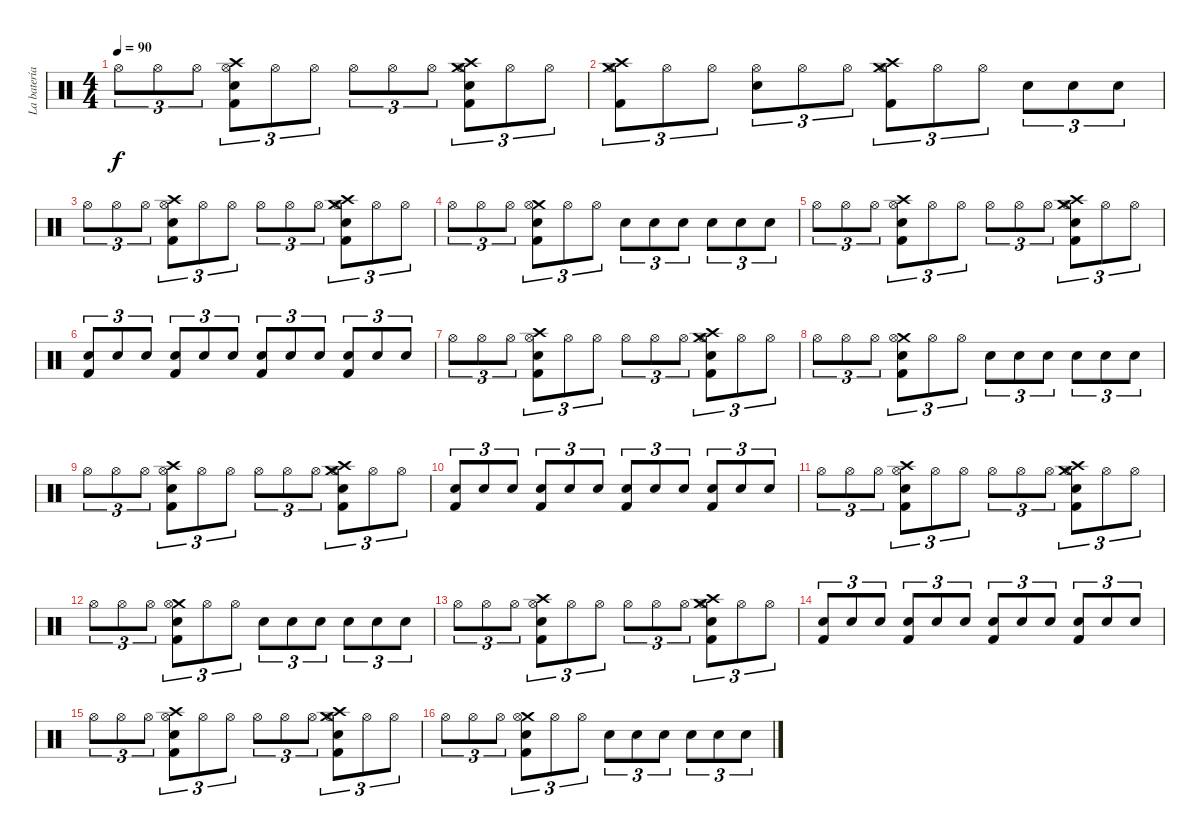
\track ("La batería (con dos huevos xD)" "La batería") {instrument percussion}
\staff {score}
\articulation defaults
\ts (4 4)
\tempo 90
\clef neutral
\ks c "Hi-Hat (open)".8{tu (3 2) dy f} "Hi-Hat (open)".8{tu (3 2)} "Hi-Hat (open)".8{tu (3 2)}
("Crash high (hit)" "Hi-Hat (open)" "Electric Snare (hit)" "Kick (hit) 2").8{tu (3 2)} "Hi-Hat (open)".8{tu (3 2)} "Hi-Hat (open)".8{tu (3 2)} "Hi-Hat (open)".8{tu (3 2)} "Hi-Hat (open)".8{tu (3 2)} "Hi-Hat (open)".8{tu (3 2)} ("Crash medium (hit)" "Hi-Hat (open)" "Crash high (hit)" "Electric Snare (hit)" "Kick (hit) 2").8{tu (3 2)} "Hi-Hat (open)".8{tu (3 2)} "Hi-Hat (open)".8{tu (3 2)} |
("Crash medium (hit)" "Hi-Hat (open)" "Crash high (hit)" "Kick (hit) 2").8{tu (3 2)} "Hi-Hat (open)".8{tu (3 2)} "Hi-Hat (open)".8{tu (3 2)} ("Hi-Hat (open)" "Electric Snare (hit)").8{tu (3 2)} "Hi-Hat (open)".8{tu (3 2)} "Hi-Hat (open)".8{tu (3 2)} ("Crash medium (hit)" "Hi-Hat (open)" "Crash high (hit)" "Kick (hit) 2").8{tu (3 2)} "Hi-Hat (open)".8{tu (3 2)} "Hi-Hat (open)".8{tu (3 2)} "Electric Snare (hit)".8{tu (3 2)} "Electric Snare (hit)".8{tu (3 2)} "Electric Snare (hit)".8{tu (3 2)} |
"Hi-Hat (open)".8{tu (3 2)} "Hi-Hat (open)".8{tu (3 2)} "Hi-Hat (open)".8{tu (3 2)} ("Crash high (hit)" "Hi-Hat (open)" "Electric Snare (hit)" "Kick (hit) 2").8{tu (3 2)} "Hi-Hat (open)".8{tu (3 2)} "Hi-Hat (open)".8{tu (3 2)} "Hi-Hat (open)".8{tu (3 2)} "Hi-Hat (open)".8{tu (3 2)} "Hi-Hat (open)".8{tu (3 2)} ("Crash medium (hit)" "Hi-Hat (open)" "Crash high (hit)" "Electric Snare (hit)" "Kick (hit) 2").8{tu (3 2)} "Hi-Hat (open)".8{tu (3 2)} "Hi-Hat (open)".8{tu (3 2)} |
"Hi-Hat (open)".8{tu (3 2)} "Hi-Hat (open)".8{tu (3 2)} "Hi-Hat (open)".8{tu (3 2)} ("Crash medium (hit)" "Hi-Hat (open)" "Electric Snare (hit)" "Kick (hit) 2").8{tu (3 2)} "Hi-Hat (open)".8{tu (3 2)} "Hi-Hat (open)".8{tu (3 2)} "Electric Snare (hit)".8{tu (3 2)} "Electric Snare (hit)".8{tu (3 2)} "Electric Snare (hit)".8{tu (3 2)} "Electric Snare (hit)".8{tu (3 2)} "Electric Snare (hit)".8{tu (3 2)} "Electric Snare (hit)".8{tu (3 2)} |
"Hi-Hat (open)".8{tu (3 2)} "Hi-Hat (open)".8{tu (3 2)} "Hi-Hat (open)".8{tu (3 2)} ("Crash high (hit)" "Hi-Hat (open)" "Electric Snare (hit)" "Kick (hit) 2").8{tu (3 2)} "Hi-Hat (open)".8{tu (3 2)} "Hi-Hat (open)".8{tu (3 2)} "Hi-Hat (open)".8{tu (3 2)} "Hi-Hat (open)".8{tu (3 2)} "Hi-Hat (open)".8{tu (3 2)} ("Crash medium (hit)" "Hi-Hat (open)" "Crash high (hit)" "Electric Snare (hit)" "Kick (hit) 2").8{tu (3 2)} "Hi-Hat (open)".8{tu (3 2)} "Hi-Hat (open)".8{tu (3 2)} |
("Electric Snare (hit)" "Kick (hit) 2").8{tu (3 2)} "Electric Snare (hit)".8{tu (3 2)} "Electric Snare (hit)".8{tu (3 2)} ("Electric Snare (hit)" "Kick (hit) 2").8{tu (3 2)} "Electric Snare (hit)".8{tu (3 2)} "Electric Snare (hit)".8{tu (3 2)} ("Electric Snare (hit)" "Kick (hit) 2").8{tu (3 2)} "Electric Snare (hit)".8{tu (3 2)} "Electric Snare (hit)".8{tu (3 2)} ("Electric Snare (hit)" "Kick (hit) 2").8{tu (3 2)} "Electric Snare (hit)".8{tu (3 2)} "Electric Snare (hit)".8{tu (3 2)} |
"Hi-Hat (open)".8{tu (3 2)} "Hi-Hat (open)".8{tu (3 2)} "Hi-Hat (open)".8{tu (3 2)} ("Crash high (hit)" "Hi-Hat (open)" "Electric Snare (hit)" "Kick (hit) 2").8{tu (3 2)} "Hi-Hat (open)".8{tu (3 2)} "Hi-Hat (open)".8{tu (3 2)} "Hi-Hat (open)".8{tu (3 2)} "Hi-Hat (open)".8{tu (3 2)} "Hi-Hat (open)".8{tu (3 2)} ("Crash medium (hit)" "Hi-Hat (open)" "Crash high (hit)" "Electric Snare (hit)" "Kick (hit) 2").8{tu (3 2)} "Hi-Hat (open)".8{tu (3 2)} "Hi-Hat (open)".8{tu (3 2)} |
"Hi-Hat (open)".8{tu (3 2)} "Hi-Hat (open)".8{tu (3 2)} "Hi-Hat (open)".8{tu (3 2)} ("Crash medium (hit)" "Hi-Hat (open)" "Electric Snare (hit)" "Kick (hit) 2").8{tu (3 2)} "Hi-Hat (open)".8{tu (3 2)} "Hi-Hat (open)".8{tu (3 2)} "Electric Snare (hit)".8{tu (3 2)} "Electric Snare (hit)".8{tu (3 2)} "Electric Snare (hit)".8{tu (3 2)} "Electric Snare (hit)".8{tu (3 2)} "Electric Snare (hit)".8{tu (3 2)} "Electric Snare (hit)".8{tu (3 2)} |
"Hi-Hat (open)".8{tu (3 2)} "Hi-Hat (open)".8{tu (3 2)} "Hi-Hat (open)".8{tu (3 2)} ("Crash high (hit)" "Hi-Hat (open)" "Electric Snare (hit)" "Kick (hit) 2").8{tu (3 2)} "Hi-Hat (open)".8{tu (3 2)} "Hi-Hat (open)".8{tu (3 2)} "Hi-Hat (open)".8{tu (3 2)} "Hi-Hat (open)".8{tu (3 2)} "Hi-Hat (open)".8{tu (3 2)} ("Crash medium (hit)" "Hi-Hat (open)" "Crash high (hit)" "Electric Snare (hit)" "Kick (hit) 2").8{tu (3 2)} "Hi-Hat (open)".8{tu (3 2)} "Hi-Hat (open)".8{tu (3 2)} |
("Electric Snare (hit)" "Kick (hit) 2").8{tu (3 2)} "Electric Snare (hit)".8{tu (3 2)} "Electric Snare (hit)".8{tu (3 2)} ("Electric Snare (hit)" "Kick (hit) 2").8{tu (3 2)} "Electric Snare (hit)".8{tu (3 2)} "Electric Snare (hit)".8{tu (3 2)} ("Electric Snare (hit)" "Kick (hit) 2").8{tu (3 2)} "Electric Snare (hit)".8{tu (3 2)} "Electric Snare (hit)".8{tu (3 2)} ("Electric Snare (hit)" "Kick (hit) 2").8{tu (3 2)} "Electric Snare (hit)".8{tu (3 2)} "Electric Snare (hit)".8{tu (3 2)} |
"Hi-Hat (open)".8{tu (3 2)} "Hi-Hat (open)".8{tu (3 2)} "Hi-Hat (open)".8{tu (3 2)} ("Crash high (hit)" "Hi-Hat (open)" "Electric Snare (hit)" "Kick (hit) 2").8{tu (3 2)} "Hi-Hat (open)".8{tu (3 2)} "Hi-Hat (open)".8{tu (3 2)} "Hi-Hat (open)".8{tu (3 2)} "Hi-Hat (open)".8{tu (3 2)} "Hi-Hat (open)".8{tu (3 2)} ("Crash medium (hit)" "Hi-Hat (open)" "Crash high (hit)" "Electric Snare (hit)" "Kick (hit) 2").8{tu (3 2)} "Hi-Hat (open)".8{tu (3 2)} "Hi-Hat (open)".8{tu (3 2)} |
"Hi-Hat (open)".8{tu (3 2)} "Hi-Hat (open)".8{tu (3 2)} "Hi-Hat (open)".8{tu (3 2)} ("Crash medium (hit)" "Hi-Hat (open)" "Electric Snare (hit)" "Kick (hit) 2").8{tu (3 2)} "Hi-Hat (open)".8{tu (3 2)} "Hi-Hat (open)".8{tu (3 2)} "Electric Snare (hit)".8{tu (3 2)} "Electric Snare (hit)".8{tu (3 2)} "Electric Snare (hit)".8{tu (3 2)} "Electric Snare (hit)".8{tu (3 2)} "Electric Snare (hit)".8{tu (3 2)} "Electric Snare (hit)".8{tu (3 2)} |
"Hi-Hat (open)".8{tu (3 2)} "Hi-Hat (open)".8{tu (3 2)} "Hi-Hat (open)".8{tu (3 2)} ("Crash high (hit)" "Hi-Hat (open)" "Electric Snare (hit)" "Kick (hit) 2").8{tu (3 2)} "Hi-Hat (open)".8{tu (3 2)} "Hi-Hat (open)".8{tu (3 2)} "Hi-Hat (open)".8{tu (3 2)} "Hi-Hat (open)".8{tu (3 2)} "Hi-Hat (open)".8{tu (3 2)} ("Crash medium (hit)" "Hi-Hat (open)" "Crash high (hit)" "Electric Snare (hit)" "Kick (hit) 2").8{tu (3 2)} "Hi-Hat (open)".8{tu (3 2)} "Hi-Hat (open)".8{tu (3 2)} |
("Electric Snare (hit)" "Kick (hit) 2").8{tu (3 2)} "Electric Snare (hit)".8{tu (3 2)} "Electric Snare (hit)".8{tu (3 2)} ("Electric Snare (hit)" "Kick (hit) 2").8{tu (3 2)} "Electric Snare (hit)".8{tu (3 2)} "Electric Snare (hit)".8{tu (3 2)} ("Electric Snare (hit)" "Kick (hit) 2").8{tu (3 2)} "Electric Snare (hit)".8{tu (3 2)} "Electric Snare (hit)".8{tu (3 2)} ("Electric Snare (hit)" "Kick (hit) 2").8{tu (3 2)} "Electric Snare (hit)".8{tu (3 2)} "Electric Snare (hit)".8{tu (3 2)} |
"Hi-Hat (open)".8{tu (3 2)} "Hi-Hat (open)".8{tu (3 2)} "Hi-Hat (open)".8{tu (3 2)} ("Crash high (hit)" "Hi-Hat (open)" "Electric Snare (hit)" "Kick (hit) 2").8{tu (3 2)} "Hi-Hat (open)".8{tu (3 2)} "Hi-Hat (open)".8{tu (3 2)} "Hi-Hat (open)".8{tu (3 2)} "Hi-Hat (open)".8{tu (3 2)} "Hi-Hat (open)".8{tu (3 2)} ("Crash medium (hit)" "Hi-Hat (open)" "Crash high (hit)" "Electric Snare (hit)" "Kick (hit) 2").8{tu (3 2)} "Hi-Hat (open)".8{tu (3 2)} "Hi-Hat (open)".8{tu (3 2)} |
"Hi-Hat (open)".8{tu (3 2)} "Hi-Hat (open)".8{tu (3 2)} "Hi-Hat (open)".8{tu (3 2)} ("Crash medium (hit)" "Hi-Hat (open)" "Electric Snare (hit)" "Kick (hit) 2").8{tu (3 2)} "Hi-Hat (open)".8{tu (3 2)} "Hi-Hat (open)".8{tu (3 2)} "Electric Snare (hit)".8{tu (3 2)} "Electric Snare (hit)".8{tu (3 2)} "Electric Snare (hit)".8{tu (3 2)} "Electric Snare (hit)".8{tu (3 2)} "Electric Snare (hit)".8{tu (3 2)} "Electric Snare (hit)".8{tu (3 2)}
